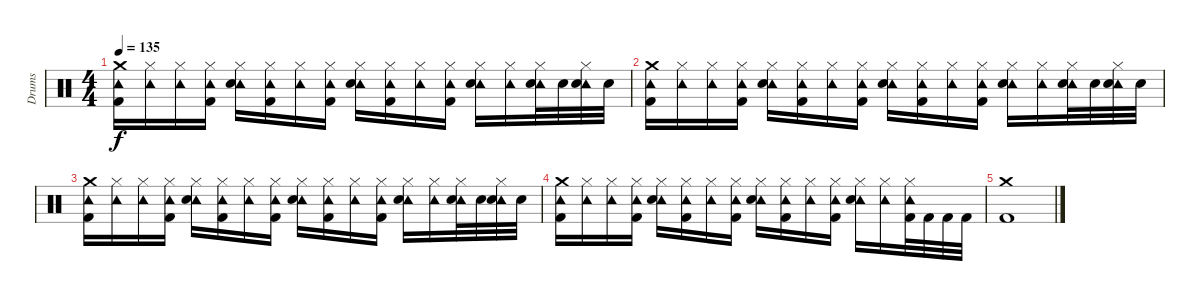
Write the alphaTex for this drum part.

\track ("Drums" "Drums") {instrument percussion}
\staff {score}
\articulation defaults
\ts (4 4)
\tempo 135
\clef neutral
\ks c
("Crash medium (hit)" "Tambourine (hit)" "Kick (hit) 2").16{dy f} ("Hi-Hat (closed)" "Tambourine (hit)").16 ("Hi-Hat (closed)" "Tambourine (hit)").16 ("Hi-Hat (closed)" "Tambourine (hit)" "Kick (hit) 2").16 ("Hi-Hat (closed)" "Tambourine (hit)" "Snare (hit) 2").16 ("Hi-Hat (closed)" "Tambourine (hit)" "Kick (hit) 2").16 ("Hi-Hat (closed)" "Tambourine (hit)").16 ("Hi-Hat (closed)" "Tambourine (hit)" "Kick (hit) 2").16 ("Hi-Hat (closed)" "Tambourine (hit)" "Snare (hit) 2").16 ("Hi-Hat (closed)" "Tambourine (hit)" "Kick (hit) 2").16 ("Hi-Hat (closed)" "Tambourine (hit)").16 ("Hi-Hat (closed)" "Tambourine (hit)" "Kick (hit) 2").16 ("Hi-Hat (closed)" "Tambourine (hit)" "Snare (hit) 2").16 ("Hi-Hat (closed)" "Tambourine (hit)").16 ("Hi-Hat (closed)" "Tambourine (hit)" "Snare (hit) 2").32 "Snare (hit) 2".32 ("Hi-Hat (closed)" "Tambourine (hit)" "Snare (hit) 2").32 "Snare (hit) 2".32 |
("Crash medium (hit)" "Tambourine (hit)" "Kick (hit) 2").16 ("Hi-Hat (closed)" "Tambourine (hit)").16 ("Hi-Hat (closed)" "Tambourine (hit)").16 ("Hi-Hat (closed)" "Tambourine (hit)" "Kick (hit) 2").16 ("Hi-Hat (closed)" "Tambourine (hit)" "Snare (hit) 2").16 ("Hi-Hat (closed)" "Tambourine (hit)" "Kick (hit) 2").16 ("Hi-Hat (closed)" "Tambourine (hit)").16 ("Hi-Hat (closed)" "Tambourine (hit)" "Kick (hit) 2").16 ("Hi-Hat (closed)" "Tambourine (hit)" "Snare (hit) 2").16 ("Hi-Hat (closed)" "Tambourine (hit)" "Kick (hit) 2").16 ("Hi-Hat (closed)" "Tambourine (hit)").16 ("Hi-Hat (closed)" "Tambourine (hit)" "Kick (hit) 2").16 ("Hi-Hat (closed)" "Tambourine (hit)" "Snare (hit) 2").16 ("Hi-Hat (closed)" "Tambourine (hit)").16 ("Hi-Hat (closed)" "Tambourine (hit)" "Snare (hit) 2").32 "Snare (hit) 2".32 ("Hi-Hat (closed)" "Tambourine (hit)" "Snare (hit) 2").32 "Snare (hit) 2".32 |
("Crash medium (hit)" "Tambourine (hit)" "Kick (hit) 2").16 ("Hi-Hat (closed)" "Tambourine (hit)").16 ("Hi-Hat (closed)" "Tambourine (hit)").16 ("Hi-Hat (closed)" "Tambourine (hit)" "Kick (hit) 2").16 ("Hi-Hat (closed)" "Tambourine (hit)" "Snare (hit) 2").16 ("Hi-Hat (closed)" "Tambourine (hit)" "Kick (hit) 2").16 ("Hi-Hat (closed)" "Tambourine (hit)").16 ("Hi-Hat (closed)" "Tambourine (hit)" "Kick (hit) 2").16 ("Hi-Hat (closed)" "Tambourine (hit)" "Snare (hit) 2").16 ("Hi-Hat (closed)" "Tambourine (hit)" "Kick (hit) 2").16 ("Hi-Hat (closed)" "Tambourine (hit)").16 ("Hi-Hat (closed)" "Tambourine (hit)" "Kick (hit) 2").16 ("Hi-Hat (closed)" "Tambourine (hit)" "Snare (hit) 2").16 ("Hi-Hat (closed)" "Tambourine (hit)").16 ("Hi-Hat (closed)" "Tambourine (hit)" "Snare (hit) 2").32 "Snare (hit) 2".32 ("Hi-Hat (closed)" "Tambourine (hit)" "Snare (hit) 2").32 "Snare (hit) 2".32 |
("Crash medium (hit)" "Tambourine (hit)" "Kick (hit) 2").16 ("Hi-Hat (closed)" "Tambourine (hit)").16 ("Hi-Hat (closed)" "Tambourine (hit)").16 ("Hi-Hat (closed)" "Tambourine (hit)" "Kick (hit) 2").16 ("Hi-Hat (closed)" "Tambourine (hit)" "Snare (hit) 2").16 ("Hi-Hat (closed)" "Tambourine (hit)" "Kick (hit) 2").16 ("Hi-Hat (closed)" "Tambourine (hit)").16 ("Hi-Hat (closed)" "Tambourine (hit)" "Kick (hit) 2").16 ("Hi-Hat (closed)" "Tambourine (hit)" "Snare (hit) 2").16 ("Hi-Hat (closed)" "Tambourine (hit)" "Kick (hit) 2").16 ("Hi-Hat (closed)" "Tambourine (hit)").16 ("Hi-Hat (closed)" "Tambourine (hit)" "Kick (hit) 2").16 ("Hi-Hat (closed)" "Tambourine (hit)" "Snare (hit) 2").16 ("Hi-Hat (closed)" "Tambourine (hit)").16 ("Hi-Hat (closed)" "Tambourine (hit)" "Kick (hit) 2").32 "Kick (hit) 2".32 "Kick (hit) 2".32 "Kick (hit) 2".32 |
("Crash medium (hit)" "Kick (hit) 2").1
